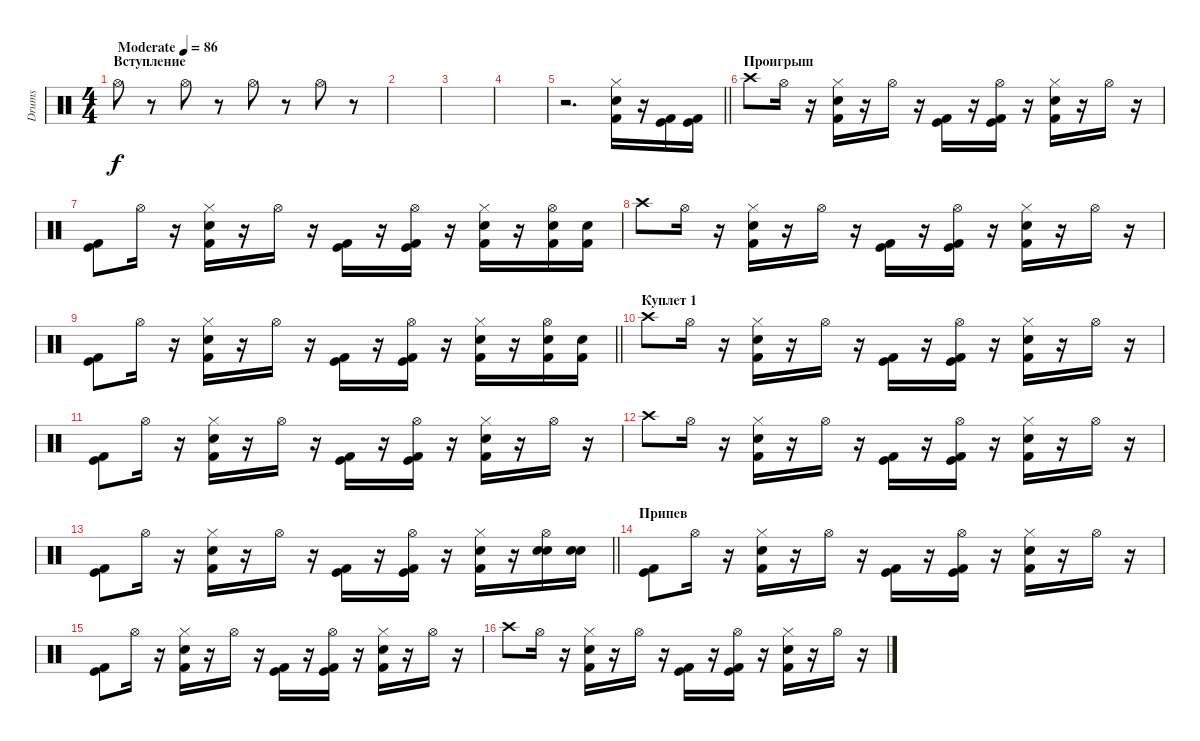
\track ("Drums" "Drums") {instrument percussion}
\staff {score}
\articulation defaults
\ts (4 4)
\section ("" "Вступление")
\tempo (86 "Moderate")
\clef neutral
\ks c "Hi-Hat (open)".8{dy f}
r.8 "Hi-Hat (open)".8 r.8 "Hi-Hat (open)".8 r.8 "Hi-Hat (open)".8 r.8 |
|
|
|
\barLineRight lightlight
r.2{d} ("Hi-Hat (closed)" "Snare (hit) 2" "Kick (hit) 2").16 r.16 ("Kick (hit) 2" "Kick (hit)").16 ("Kick (hit) 2" "Kick (hit)").16 |
\section ("" "Проигрыш")
"Crash high (hit)".8 "Hi-Hat (open)".16 r.16 ("Hi-Hat (closed)" "Snare (hit) 2" "Kick (hit) 2").16 r.16 "Hi-Hat (open)".16 r.16 ("Kick (hit) 2" "Kick (hit)").16 r.16 ("Kick (hit) 2" "Kick (hit)" "Hi-Hat (open)").16 r.16 ("Hi-Hat (closed)" "Snare (hit) 2" "Kick (hit) 2").16 r.16 "Hi-Hat (open)".16 r.16 |
("Kick (hit) 2" "Kick (hit)").8 "Hi-Hat (open)".16 r.16 ("Hi-Hat (closed)" "Snare (hit) 2" "Kick (hit) 2").16 r.16 "Hi-Hat (open)".16 r.16 ("Kick (hit) 2" "Kick (hit)").16 r.16 ("Kick (hit) 2" "Kick (hit)" "Hi-Hat (open)").16 r.16 ("Hi-Hat (closed)" "Snare (hit) 2" "Kick (hit) 2").16 r.16 ("Kick (hit) 2" "Electric Snare (hit)" "Hi-Hat (open)").16 ("Kick (hit) 2" "Electric Snare (hit)").16 |
"Crash high (hit)".8 "Hi-Hat (open)".16 r.16 ("Hi-Hat (closed)" "Snare (hit) 2" "Kick (hit) 2").16 r.16 "Hi-Hat (open)".16 r.16 ("Kick (hit) 2" "Kick (hit)").16 r.16 ("Kick (hit) 2" "Kick (hit)" "Hi-Hat (open)").16 r.16 ("Hi-Hat (closed)" "Snare (hit) 2" "Kick (hit) 2").16 r.16 "Hi-Hat (open)".16 r.16 |
\barLineRight lightlight
("Kick (hit) 2" "Kick (hit)").8 "Hi-Hat (open)".16 r.16 ("Hi-Hat (closed)" "Snare (hit) 2" "Kick (hit) 2").16 r.16 "Hi-Hat (open)".16 r.16 ("Kick (hit) 2" "Kick (hit)").16 r.16 ("Kick (hit) 2" "Kick (hit)" "Hi-Hat (open)").16 r.16 ("Hi-Hat (closed)" "Snare (hit) 2" "Kick (hit) 2").16 r.16 ("Kick (hit) 2" "Electric Snare (hit)" "Hi-Hat (open)").16 ("Kick (hit) 2" "Electric Snare (hit)").16 |
\section ("" "Куплет 1")
"Crash high (hit)".8 "Hi-Hat (open)".16 r.16 ("Hi-Hat (closed)" "Snare (hit) 2" "Kick (hit) 2").16 r.16 "Hi-Hat (open)".16 r.16 ("Kick (hit) 2" "Kick (hit)").16 r.16 ("Kick (hit) 2" "Kick (hit)" "Hi-Hat (open)").16 r.16 ("Hi-Hat (closed)" "Snare (hit) 2" "Kick (hit) 2").16 r.16 "Hi-Hat (open)".16 r.16 |
("Kick (hit) 2" "Kick (hit)").8 "Hi-Hat (open)".16 r.16 ("Hi-Hat (closed)" "Snare (hit) 2" "Kick (hit) 2").16 r.16 "Hi-Hat (open)".16 r.16 ("Kick (hit) 2" "Kick (hit)").16 r.16 ("Kick (hit) 2" "Kick (hit)" "Hi-Hat (open)").16 r.16 ("Hi-Hat (closed)" "Snare (hit) 2" "Kick (hit) 2").16 r.16 "Hi-Hat (open)".16 r.16 |
"Crash high (hit)".8 "Hi-Hat (open)".16 r.16 ("Hi-Hat (closed)" "Snare (hit) 2" "Kick (hit) 2").16 r.16 "Hi-Hat (open)".16 r.16 ("Kick (hit) 2" "Kick (hit)").16 r.16 ("Kick (hit) 2" "Kick (hit)" "Hi-Hat (open)").16 r.16 ("Hi-Hat (closed)" "Snare (hit) 2" "Kick (hit) 2").16 r.16 "Hi-Hat (open)".16 r.16 |
\barLineRight lightlight
("Kick (hit) 2" "Kick (hit)").8 "Hi-Hat (open)".16 r.16 ("Hi-Hat (closed)" "Snare (hit) 2" "Kick (hit) 2").16 r.16 "Hi-Hat (open)".16 r.16 ("Kick (hit) 2" "Kick (hit)").16 r.16 ("Kick (hit) 2" "Kick (hit)" "Hi-Hat (open)").16 r.16 ("Hi-Hat (closed)" "Snare (hit) 2" "Kick (hit) 2").16 r.16 ("Snare (hit) 2" "Electric Snare (hit)" "Hi-Hat (open)").16 ("Snare (hit) 2" "Electric Snare (hit)").16 |
\section ("" "Припев")
("Kick (hit) 2" "Kick (hit)").8 "Hi-Hat (open)".16 r.16 ("Hi-Hat (closed)" "Snare (hit) 2" "Kick (hit) 2").16 r.16 "Hi-Hat (open)".16 r.16 ("Kick (hit) 2" "Kick (hit)").16 r.16 ("Kick (hit) 2" "Kick (hit)" "Hi-Hat (open)").16 r.16 ("Hi-Hat (closed)" "Snare (hit) 2" "Kick (hit) 2").16 r.16 "Hi-Hat (open)".16 r.16 |
("Kick (hit)" "Kick (hit) 2").8 "Hi-Hat (open)".16 r.16 ("Hi-Hat (closed)" "Snare (hit) 2" "Kick (hit) 2").16 r.16 "Hi-Hat (open)".16 r.16 ("Kick (hit) 2" "Kick (hit)").16 r.16 ("Kick (hit) 2" "Kick (hit)" "Hi-Hat (open)").16 r.16 ("Hi-Hat (closed)" "Snare (hit) 2" "Kick (hit) 2").16 r.16 "Hi-Hat (open)".16 r.16 |
"Crash high (hit)".8 "Hi-Hat (open)".16 r.16 ("Hi-Hat (closed)" "Snare (hit) 2" "Kick (hit) 2").16 r.16 "Hi-Hat (open)".16 r.16 ("Kick (hit) 2" "Kick (hit)").16 r.16 ("Kick (hit) 2" "Kick (hit)" "Hi-Hat (open)").16 r.16 ("Hi-Hat (closed)" "Snare (hit) 2" "Kick (hit) 2").16 r.16 "Hi-Hat (open)".16 r.16
